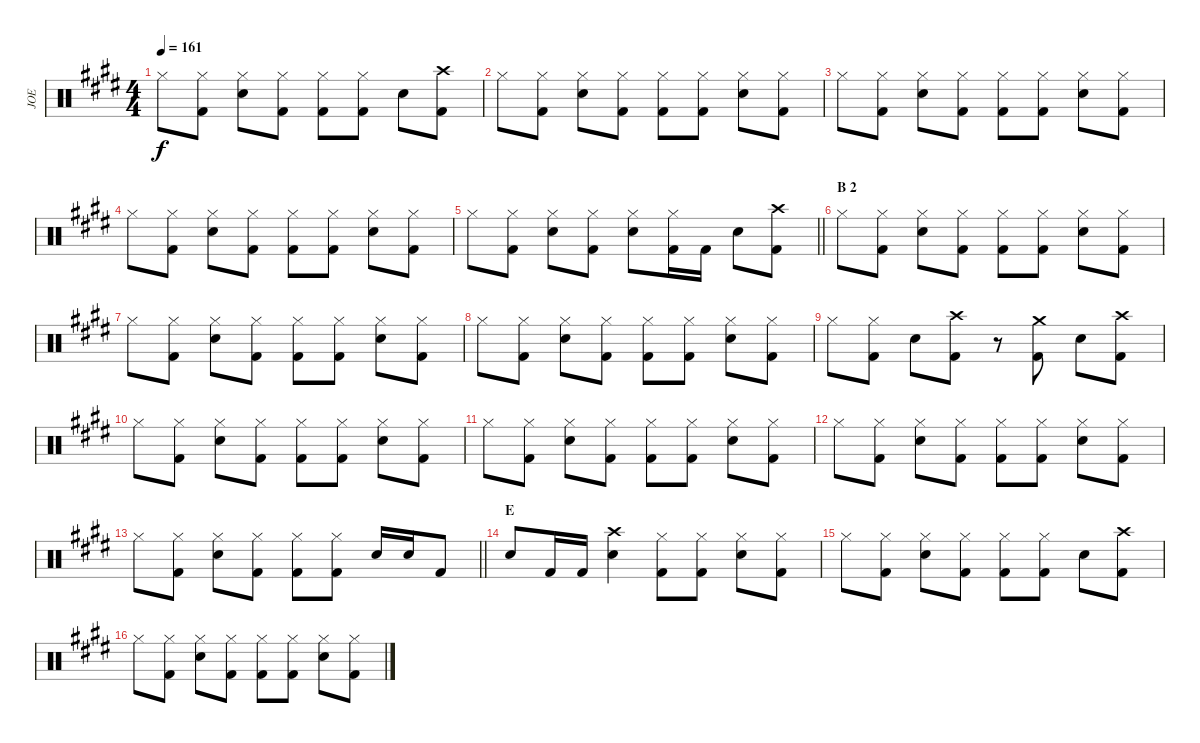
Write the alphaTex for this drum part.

\track ("JOE" "JOE") {instrument percussion}
\staff {score}
\articulation defaults
\ts (4 4)
\tempo 161
\clef neutral
\ks e "Hi-Hat (closed)".8{dy f}
("Hi-Hat (closed)" "Kick (hit) 2").8 ("Hi-Hat (closed)" "Snare (hit) 2").8 ("Hi-Hat (closed)" "Kick (hit) 2").8 ("Hi-Hat (closed)" "Kick (hit) 2").8 ("Hi-Hat (closed)" "Kick (hit) 2").8 "Snare (hit) 2".8 ("Crash high (hit)" "Kick (hit) 2").8 |
"Hi-Hat (closed)".8 ("Hi-Hat (closed)" "Kick (hit) 2").8 ("Hi-Hat (closed)" "Snare (hit) 2").8 ("Hi-Hat (closed)" "Kick (hit) 2").8 ("Hi-Hat (closed)" "Kick (hit) 2").8 ("Hi-Hat (closed)" "Kick (hit) 2").8 ("Hi-Hat (closed)" "Snare (hit) 2").8 ("Hi-Hat (closed)" "Kick (hit) 2").8 |
"Hi-Hat (closed)".8 ("Hi-Hat (closed)" "Kick (hit) 2").8 ("Hi-Hat (closed)" "Snare (hit) 2").8 ("Hi-Hat (closed)" "Kick (hit) 2").8 ("Hi-Hat (closed)" "Kick (hit) 2").8 ("Hi-Hat (closed)" "Kick (hit) 2").8 ("Hi-Hat (closed)" "Snare (hit) 2").8 ("Hi-Hat (closed)" "Kick (hit) 2").8 |
"Hi-Hat (closed)".8 ("Hi-Hat (closed)" "Kick (hit) 2").8 ("Hi-Hat (closed)" "Snare (hit) 2").8 ("Hi-Hat (closed)" "Kick (hit) 2").8 ("Hi-Hat (closed)" "Kick (hit) 2").8 ("Hi-Hat (closed)" "Kick (hit) 2").8 ("Hi-Hat (closed)" "Snare (hit) 2").8 ("Hi-Hat (closed)" "Kick (hit) 2").8 |
\barLineRight lightlight "Hi-Hat (closed)".8
("Hi-Hat (closed)" "Kick (hit) 2").8 ("Hi-Hat (closed)" "Snare (hit) 2").8 ("Hi-Hat (closed)" "Kick (hit) 2").8 ("Hi-Hat (closed)" "Snare (hit) 2").8 ("Hi-Hat (closed)" "Kick (hit) 2").16 "Kick (hit) 2".16 "Snare (hit) 2".8 ("Crash high (hit)" "Kick (hit) 2").8 |
\section ("" "B 2")
"Hi-Hat (closed)".8 ("Hi-Hat (closed)" "Kick (hit) 2").8 ("Hi-Hat (closed)" "Snare (hit) 2").8 ("Hi-Hat (closed)" "Kick (hit) 2").8 ("Hi-Hat (closed)" "Kick (hit) 2").8 ("Hi-Hat (closed)" "Kick (hit) 2").8 ("Hi-Hat (closed)" "Snare (hit) 2").8 ("Hi-Hat (closed)" "Kick (hit) 2").8 |
"Hi-Hat (closed)".8 ("Hi-Hat (closed)" "Kick (hit) 2").8 ("Hi-Hat (closed)" "Snare (hit) 2").8 ("Hi-Hat (closed)" "Kick (hit) 2").8 ("Hi-Hat (closed)" "Kick (hit) 2").8 ("Hi-Hat (closed)" "Kick (hit) 2").8 ("Hi-Hat (closed)" "Snare (hit) 2").8 ("Hi-Hat (closed)" "Kick (hit) 2").8 |
"Hi-Hat (closed)".8 ("Hi-Hat (closed)" "Kick (hit) 2").8 ("Hi-Hat (closed)" "Snare (hit) 2").8 ("Hi-Hat (closed)" "Kick (hit) 2").8 ("Hi-Hat (closed)" "Kick (hit) 2").8 ("Hi-Hat (closed)" "Kick (hit) 2").8 ("Hi-Hat (closed)" "Snare (hit) 2").8 ("Hi-Hat (closed)" "Kick (hit) 2").8 |
"Hi-Hat (closed)".8 ("Hi-Hat (closed)" "Kick (hit) 2").8 "Snare (hit) 2".8 ("Crash high (hit)" "Kick (hit) 2").8 r.8 ("Crash medium (hit)" "Kick (hit) 2").8 "Snare (hit) 2".8 ("Crash high (hit)" "Kick (hit) 2").8 |
"Hi-Hat (closed)".8 ("Hi-Hat (closed)" "Kick (hit) 2").8 ("Hi-Hat (closed)" "Snare (hit) 2").8 ("Hi-Hat (closed)" "Kick (hit) 2").8 ("Hi-Hat (closed)" "Kick (hit) 2").8 ("Hi-Hat (closed)" "Kick (hit) 2").8 ("Hi-Hat (closed)" "Snare (hit) 2").8 ("Hi-Hat (closed)" "Kick (hit) 2").8 |
"Hi-Hat (closed)".8 ("Hi-Hat (closed)" "Kick (hit) 2").8 ("Hi-Hat (closed)" "Snare (hit) 2").8 ("Hi-Hat (closed)" "Kick (hit) 2").8 ("Hi-Hat (closed)" "Kick (hit) 2").8 ("Hi-Hat (closed)" "Kick (hit) 2").8 ("Hi-Hat (closed)" "Snare (hit) 2").8 ("Hi-Hat (closed)" "Kick (hit) 2").8 |
"Hi-Hat (closed)".8 ("Hi-Hat (closed)" "Kick (hit) 2").8 ("Hi-Hat (closed)" "Snare (hit) 2").8 ("Hi-Hat (closed)" "Kick (hit) 2").8 ("Hi-Hat (closed)" "Kick (hit) 2").8 ("Hi-Hat (closed)" "Kick (hit) 2").8 ("Hi-Hat (closed)" "Snare (hit) 2").8 ("Hi-Hat (closed)" "Kick (hit) 2").8 |
\barLineRight lightlight "Hi-Hat (closed)".8
("Hi-Hat (closed)" "Kick (hit) 2").8 ("Hi-Hat (closed)" "Snare (hit) 2").8 ("Hi-Hat (closed)" "Kick (hit) 2").8 ("Hi-Hat (closed)" "Kick (hit) 2").8 ("Hi-Hat (closed)" "Kick (hit) 2").8 "Snare (hit) 2".16 "Snare (hit) 2".16 "Kick (hit) 2".8 |
\section ("" "E")
"Snare (hit) 2".8 "Kick (hit) 2".16 "Kick (hit) 2".16 ("Crash high (hit)" "Snare (hit) 2").4 ("Hi-Hat (closed)" "Kick (hit) 2").8 ("Hi-Hat (closed)" "Kick (hit) 2").8 ("Hi-Hat (closed)" "Snare (hit) 2").8 ("Hi-Hat (closed)" "Kick (hit) 2").8 |
"Hi-Hat (closed)".8 ("Hi-Hat (closed)" "Kick (hit) 2").8 ("Hi-Hat (closed)" "Snare (hit) 2").8 ("Hi-Hat (closed)" "Kick (hit) 2").8 ("Hi-Hat (closed)" "Kick (hit) 2").8 ("Hi-Hat (closed)" "Kick (hit) 2").8 "Snare (hit) 2".8 ("Crash high (hit)" "Kick (hit) 2").8 |
"Hi-Hat (closed)".8 ("Hi-Hat (closed)" "Kick (hit) 2").8 ("Hi-Hat (closed)" "Snare (hit) 2").8 ("Hi-Hat (closed)" "Kick (hit) 2").8 ("Hi-Hat (closed)" "Kick (hit) 2").8 ("Hi-Hat (closed)" "Kick (hit) 2").8 ("Hi-Hat (closed)" "Snare (hit) 2").8 ("Hi-Hat (closed)" "Kick (hit) 2").8
